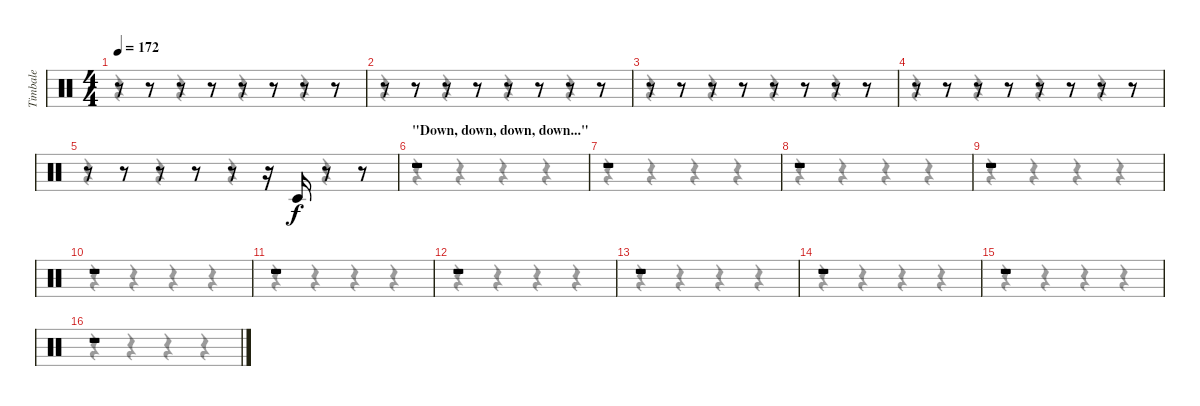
\track ("Timbale" "Timbale") {instrument percussion}
\staff {score}
\articulation defaults
\voice
\ts (4 4)
\tempo 172
\clef neutral
\ks c
r.8{dy f} r.8 r.8 r.8 r.8 r.8 r.8 r.8 |
r.8 r.8 r.8 r.8 r.8 r.8 r.8 r.8 |
r.8 r.8 r.8 r.8 r.8 r.8 r.8 r.8 |
r.8 r.8 r.8 r.8 r.8 r.8 r.8 r.8 |
r.8 r.8 r.8 r.8 r.8 r.16 "Timbale low (hit)".16 r.8 r.8 |
\section ("" "\"Down, down, down, down...\"")
r.1 |
r.1 |
r.1 |
r.1 |
r.1 |
r.1 |
r.1 |
r.1 |
r.1 |
r.1 |
r.1
\voice
\clef neutral
\ottava regular
\simile none
\ks c
r.4{dy f} r.4 r.4 r.4 |
r.4 r.4 r.4 r.4 |
r.4 r.4 r.4 r.4 |
r.4 r.4 r.4 r.4 |
r.4 r.4 r.4 r.4 |
r.4 r.4 r.4 r.4 |
r.4 r.4 r.4 r.4 |
r.4 r.4 r.4 r.4 |
r.4 r.4 r.4 r.4 |
r.4 r.4 r.4 r.4 |
r.4 r.4 r.4 r.4 |
r.4 r.4 r.4 r.4 |
r.4 r.4 r.4 r.4 |
r.4 r.4 r.4 r.4 |
r.4 r.4 r.4 r.4 |
r.4 r.4 r.4 r.4
